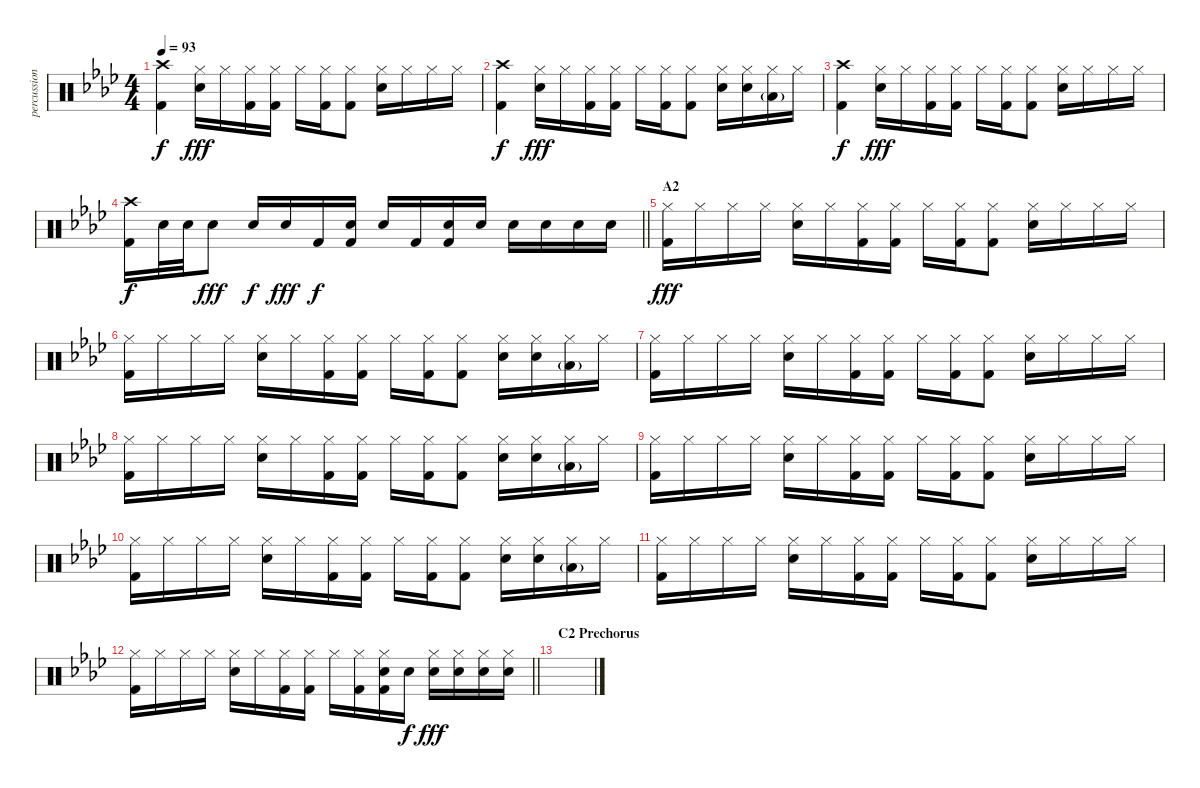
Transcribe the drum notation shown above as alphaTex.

\track ("percussion" "percussion") {instrument percussion}
\staff {score}
\articulation defaults
\ts (4 4)
\tempo 93
\clef neutral
\ks fminor
("Crash high (hit)" "Kick (hit) 2").4{dy f} ("Snare (hit) 2" "Hi-Hat (closed)").16{dy fff} "Hi-Hat (closed)".16 ("Hi-Hat (closed)" "Kick (hit) 2").16 ("Hi-Hat (closed)" "Kick (hit) 2").16 "Hi-Hat (closed)".16 ("Hi-Hat (closed)" "Kick (hit) 2").16 ("Hi-Hat (closed)" "Kick (hit) 2").8 ("Snare (hit) 2" "Hi-Hat (closed)").16 "Hi-Hat (closed)".16 "Hi-Hat (closed)".16 "Hi-Hat (closed)".16 |
("Crash high (hit)" "Kick (hit) 2").4{dy f} ("Snare (hit) 2" "Hi-Hat (closed)").16{dy fff} "Hi-Hat (closed)".16 ("Hi-Hat (closed)" "Kick (hit) 2").16 ("Hi-Hat (closed)" "Kick (hit) 2").16 "Hi-Hat (closed)".16 ("Hi-Hat (closed)" "Kick (hit) 2").16 ("Hi-Hat (closed)" "Kick (hit) 2").8 ("Snare (hit) 2" "Hi-Hat (closed)").16 ("Snare (hit) 2" "Hi-Hat (closed)").16 ("Low Floor Tom (hit)"{g} "Hi-Hat (closed)").16 "Hi-Hat (closed)".16 |
("Crash high (hit)" "Kick (hit) 2").4{dy f} ("Snare (hit) 2" "Hi-Hat (closed)").16{dy fff} "Hi-Hat (closed)".16 ("Hi-Hat (closed)" "Kick (hit) 2").16 ("Hi-Hat (closed)" "Kick (hit) 2").16 "Hi-Hat (closed)".16 ("Hi-Hat (closed)" "Kick (hit) 2").16 ("Hi-Hat (closed)" "Kick (hit) 2").8 ("Snare (hit) 2" "Hi-Hat (closed)").16 "Hi-Hat (closed)".16 "Hi-Hat (closed)".16 "Hi-Hat (closed)".16 |
\barLineRight lightlight
("Crash high (hit)" "Kick (hit) 2").16{dy f} "Snare (hit) 2".32 "Snare (hit) 2".32 "Snare (hit) 2".8{dy fff} "Snare (hit) 2".16{dy f} "Snare (hit) 2".16{dy fff} "Kick (hit) 2".16{dy f} ("Snare (hit) 2" "Kick (hit) 2").16 "Snare (hit) 2".16 "Kick (hit) 2".16 ("Snare (hit) 2" "Kick (hit) 2").16 "Snare (hit) 2".16 "Snare (hit) 2".16 "Snare (hit) 2".16 "Snare (hit) 2".16 "Snare (hit) 2".16 |
\section ("" "A2")
("Hi-Hat (closed)" "Kick (hit) 2").16{dy fff} "Hi-Hat (closed)".16 "Hi-Hat (closed)".16 "Hi-Hat (closed)".16 ("Snare (hit) 2" "Hi-Hat (closed)").16 "Hi-Hat (closed)".16 ("Hi-Hat (closed)" "Kick (hit) 2").16 ("Hi-Hat (closed)" "Kick (hit) 2").16 "Hi-Hat (closed)".16 ("Hi-Hat (closed)" "Kick (hit) 2").16 ("Hi-Hat (closed)" "Kick (hit) 2").8 ("Snare (hit) 2" "Hi-Hat (closed)").16 "Hi-Hat (closed)".16 "Hi-Hat (closed)".16 "Hi-Hat (closed)".16 |
("Hi-Hat (closed)" "Kick (hit) 2").16 "Hi-Hat (closed)".16 "Hi-Hat (closed)".16 "Hi-Hat (closed)".16 ("Snare (hit) 2" "Hi-Hat (closed)").16 "Hi-Hat (closed)".16 ("Hi-Hat (closed)" "Kick (hit) 2").16 ("Hi-Hat (closed)" "Kick (hit) 2").16 "Hi-Hat (closed)".16 ("Hi-Hat (closed)" "Kick (hit) 2").16 ("Hi-Hat (closed)" "Kick (hit) 2").8 ("Snare (hit) 2" "Hi-Hat (closed)").16 ("Snare (hit) 2" "Hi-Hat (closed)").16 ("Low Floor Tom (hit)"{g} "Hi-Hat (closed)").16 "Hi-Hat (closed)".16 |
("Hi-Hat (closed)" "Kick (hit) 2").16 "Hi-Hat (closed)".16 "Hi-Hat (closed)".16 "Hi-Hat (closed)".16 ("Snare (hit) 2" "Hi-Hat (closed)").16 "Hi-Hat (closed)".16 ("Hi-Hat (closed)" "Kick (hit) 2").16 ("Hi-Hat (closed)" "Kick (hit) 2").16 "Hi-Hat (closed)".16 ("Hi-Hat (closed)" "Kick (hit) 2").16 ("Hi-Hat (closed)" "Kick (hit) 2").8 ("Snare (hit) 2" "Hi-Hat (closed)").16 "Hi-Hat (closed)".16 "Hi-Hat (closed)".16 "Hi-Hat (closed)".16 |
("Hi-Hat (closed)" "Kick (hit) 2").16 "Hi-Hat (closed)".16 "Hi-Hat (closed)".16 "Hi-Hat (closed)".16 ("Snare (hit) 2" "Hi-Hat (closed)").16 "Hi-Hat (closed)".16 ("Hi-Hat (closed)" "Kick (hit) 2").16 ("Hi-Hat (closed)" "Kick (hit) 2").16 "Hi-Hat (closed)".16 ("Hi-Hat (closed)" "Kick (hit) 2").16 ("Hi-Hat (closed)" "Kick (hit) 2").8 ("Snare (hit) 2" "Hi-Hat (closed)").16 ("Snare (hit) 2" "Hi-Hat (closed)").16 ("Low Floor Tom (hit)"{g} "Hi-Hat (closed)").16 "Hi-Hat (closed)".16 |
("Hi-Hat (closed)" "Kick (hit) 2").16 "Hi-Hat (closed)".16 "Hi-Hat (closed)".16 "Hi-Hat (closed)".16 ("Snare (hit) 2" "Hi-Hat (closed)").16 "Hi-Hat (closed)".16 ("Hi-Hat (closed)" "Kick (hit) 2").16 ("Hi-Hat (closed)" "Kick (hit) 2").16 "Hi-Hat (closed)".16 ("Hi-Hat (closed)" "Kick (hit) 2").16 ("Hi-Hat (closed)" "Kick (hit) 2").8 ("Snare (hit) 2" "Hi-Hat (closed)").16 "Hi-Hat (closed)".16 "Hi-Hat (closed)".16 "Hi-Hat (closed)".16 |
("Hi-Hat (closed)" "Kick (hit) 2").16 "Hi-Hat (closed)".16 "Hi-Hat (closed)".16 "Hi-Hat (closed)".16 ("Snare (hit) 2" "Hi-Hat (closed)").16 "Hi-Hat (closed)".16 ("Hi-Hat (closed)" "Kick (hit) 2").16 ("Hi-Hat (closed)" "Kick (hit) 2").16 "Hi-Hat (closed)".16 ("Hi-Hat (closed)" "Kick (hit) 2").16 ("Hi-Hat (closed)" "Kick (hit) 2").8 ("Snare (hit) 2" "Hi-Hat (closed)").16 ("Snare (hit) 2" "Hi-Hat (closed)").16 ("Low Floor Tom (hit)"{g} "Hi-Hat (closed)").16 "Hi-Hat (closed)".16 |
("Hi-Hat (closed)" "Kick (hit) 2").16 "Hi-Hat (closed)".16 "Hi-Hat (closed)".16 "Hi-Hat (closed)".16 ("Snare (hit) 2" "Hi-Hat (closed)").16 "Hi-Hat (closed)".16 ("Hi-Hat (closed)" "Kick (hit) 2").16 ("Hi-Hat (closed)" "Kick (hit) 2").16 "Hi-Hat (closed)".16 ("Hi-Hat (closed)" "Kick (hit) 2").16 ("Hi-Hat (closed)" "Kick (hit) 2").8 ("Snare (hit) 2" "Hi-Hat (closed)").16 "Hi-Hat (closed)".16 "Hi-Hat (closed)".16 "Hi-Hat (closed)".16 |
\barLineRight lightlight
("Hi-Hat (closed)" "Kick (hit) 2").16 "Hi-Hat (closed)".16 "Hi-Hat (closed)".16 "Hi-Hat (closed)".16 ("Snare (hit) 2" "Hi-Hat (closed)").16 "Hi-Hat (closed)".16 ("Hi-Hat (closed)" "Kick (hit) 2").16 ("Hi-Hat (closed)" "Kick (hit) 2").16 "Hi-Hat (closed)".16 ("Hi-Hat (closed)" "Kick (hit) 2").16 ("Snare (hit) 2" "Hi-Hat (closed)" "Kick (hit) 2").16 "Snare (hit) 2".16{dy f} ("Snare (hit) 2" "Hi-Hat (closed)").16{dy fff} ("Snare (hit) 2" "Hi-Hat (closed)").16 ("Snare (hit) 2" "Hi-Hat (closed)").16 ("Snare (hit) 2" "Hi-Hat (closed)").16 |
\section ("" "C2 Prechorus")
